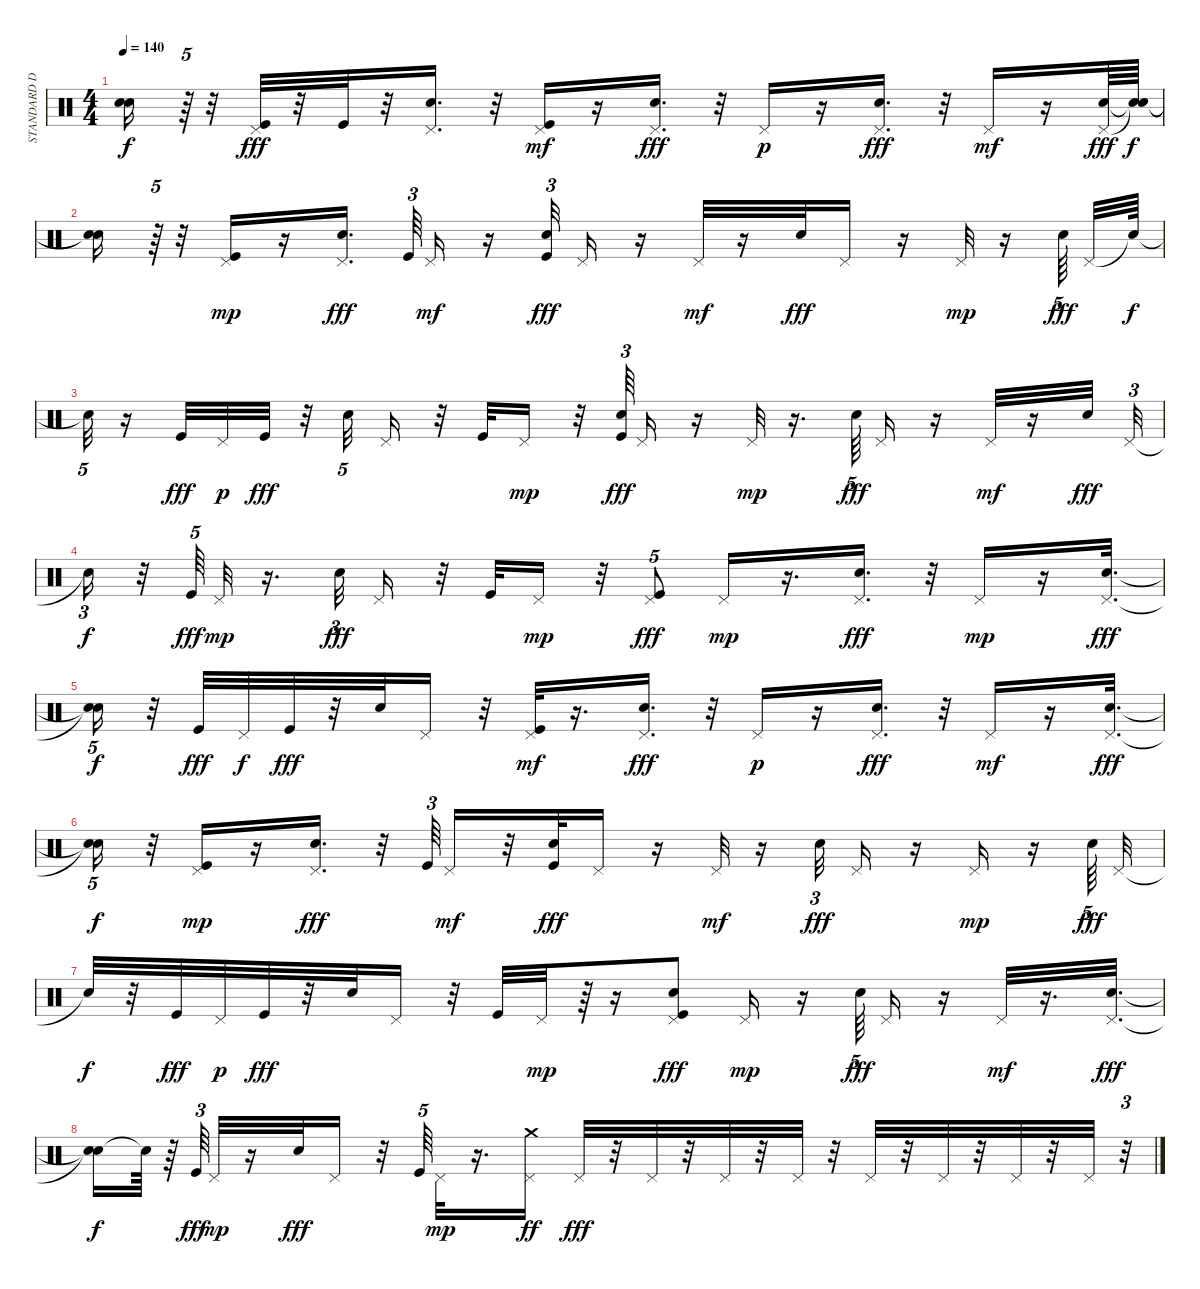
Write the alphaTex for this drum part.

\track ("STANDARD DRUMS" "STANDARD D") {instrument percussion}
\staff {score}
\articulation defaults
\ts (4 4)
\tempo 140
\clef neutral
\ks c
("Snare (hit)"{t} "Snare (hit)"{t}).16{dy f} r.64{tu (5 4)} r.32 ("Kick (hit)" "Pedal Hi-Hat (hit)").32{dy fff} r.32 "Kick (hit)".32 r.32 ("Snare (hit) 2" "Pedal Hi-Hat (hit)").16{d} r.32 ("Kick (hit)" "Pedal Hi-Hat (hit)").16{dy mf} r.16 ("Snare (hit) 2" "Pedal Hi-Hat (hit)").16{d dy fff} r.32 "Pedal Hi-Hat (hit)".16{dy p} r.16 ("Snare (hit) 2" "Pedal Hi-Hat (hit)").16{d dy fff} r.32 "Pedal Hi-Hat (hit)".16{dy mf} r.16 ("Snare (hit) 2" "Pedal Hi-Hat (hit)").64{dy fff} ("Snare (hit)"{t} "Snare (hit)"{t}).64{dy f} |
("Snare (hit)"{t} "Snare (hit)"{t}).16 r.64{tu (5 4)} r.32 ("Kick (hit)" "Pedal Hi-Hat (hit)").16{dy mp} r.16 ("Snare (hit) 2" "Pedal Hi-Hat (hit)").16{d dy fff} "Kick (hit)".64{tu (3 2)} "Pedal Hi-Hat (hit)".16{dy mf} r.16 ("Kick (hit)" "Snare (hit) 2").32{tu (3 2) dy fff} "Pedal Hi-Hat (hit)".16 r.16 "Pedal Hi-Hat (hit)".32{dy mf} r.16 "Snare (hit) 2".32{dy fff} "Pedal Hi-Hat (hit)".16 r.16 "Pedal Hi-Hat (hit)".32{dy mp} r.16 "Snare (hit) 2".64{tu (5 4) dy fff beam splitsecondary} "Pedal Hi-Hat (hit)".32 "Snare (hit)"{t}.64{dy f} |
"Snare (hit)"{t}.32{tu (5 4)} r.16 "Kick (hit)".32{dy fff} "Pedal Hi-Hat (hit)".32{dy p} "Kick (hit)".32{dy fff} r.32 "Snare (hit) 2".32{tu (5 4)} "Pedal Hi-Hat (hit)".16 r.32 "Kick (hit)".32 "Pedal Hi-Hat (hit)".16{dy mp} r.32 ("Kick (hit)" "Snare (hit) 2").64{tu (3 2) dy fff} "Pedal Hi-Hat (hit)".16 r.16 "Pedal Hi-Hat (hit)".32{dy mp} r.16{d} "Snare (hit) 2".64{tu (5 4) dy fff} "Pedal Hi-Hat (hit)".16 r.16 "Pedal Hi-Hat (hit)".32{dy mf} r.16 "Snare (hit) 2".32{dy fff} "Pedal Hi-Hat (hit)".32{tu (3 2)} |
"Snare (hit)"{t}.16{tu (3 2) dy f} r.32 "Kick (hit)".64{tu (5 4) dy fff} "Pedal Hi-Hat (hit)".32{dy mp} r.16{d} "Snare (hit) 2".32{tu (3 2) dy fff} "Pedal Hi-Hat (hit)".16 r.32 "Kick (hit)".32 "Pedal Hi-Hat (hit)".16{dy mp} r.32 ("Kick (hit)" "Pedal Hi-Hat (hit)").8{tu (5 4) dy fff} "Pedal Hi-Hat (hit)".16{dy mp} r.16{d} ("Pedal Hi-Hat (hit)" "Snare (hit) 2").16{d dy fff} r.32 "Pedal Hi-Hat (hit)".16{dy mp} r.16 ("Snare (hit) 2" "Pedal Hi-Hat (hit)").32{d dy fff} |
("Snare (hit)"{t} "Snare (hit)"{t}).16{tu (5 4) dy f} r.32 "Kick (hit)".32{dy fff} "Pedal Hi-Hat (hit)".32{dy f} "Kick (hit)".32{dy fff} r.32 "Snare (hit) 2".32 "Pedal Hi-Hat (hit)".16 r.32 ("Kick (hit)" "Pedal Hi-Hat (hit)").32{dy mf} r.16{d} ("Snare (hit) 2" "Pedal Hi-Hat (hit)").16{d dy fff} r.32 "Pedal Hi-Hat (hit)".16{dy p} r.16 ("Snare (hit) 2" "Pedal Hi-Hat (hit)").16{d dy fff} r.32 "Pedal Hi-Hat (hit)".16{dy mf} r.16 ("Snare (hit) 2" "Pedal Hi-Hat (hit)").32{d dy fff} |
("Snare (hit)"{t} "Snare (hit)"{t}).16{tu (5 4) dy f} r.32 ("Kick (hit)" "Pedal Hi-Hat (hit)").16{dy mp} r.16 ("Snare (hit) 2" "Pedal Hi-Hat (hit)").16{d dy fff} r.32 "Kick (hit)".64{tu (3 2)} "Pedal Hi-Hat (hit)".16{dy mf} r.32 ("Kick (hit)" "Snare (hit) 2").32{dy fff} "Pedal Hi-Hat (hit)".16 r.16 "Pedal Hi-Hat (hit)".32{dy mf} r.16 "Snare (hit) 2".32{tu (3 2) dy fff} "Pedal Hi-Hat (hit)".16 r.16 "Pedal Hi-Hat (hit)".16{dy mp} r.16 "Snare (hit) 2".64{tu (5 4) dy fff} "Pedal Hi-Hat (hit)".32 |
"Snare (hit)"{t}.32{dy f} r.32 "Kick (hit)".32{dy fff} "Pedal Hi-Hat (hit)".32{dy p} "Kick (hit)".32{dy fff} r.32 "Snare (hit) 2".32 "Pedal Hi-Hat (hit)".16 r.32 "Kick (hit)".32 "Pedal Hi-Hat (hit)".32{dy mp} r.64 r.16 ("Kick (hit)" "Snare (hit) 2" "Pedal Hi-Hat (hit)").8{dy fff} "Pedal Hi-Hat (hit)".16{dy mp} r.16 "Snare (hit) 2".64{tu (5 4) dy fff} "Pedal Hi-Hat (hit)".16 r.16 "Pedal Hi-Hat (hit)".32{dy mf} r.16{d} ("Snare (hit) 2" "Pedal Hi-Hat (hit)").32{d dy fff} |
("Snare (hit)"{t} "Snare (hit)"{t}).16{dy f} "Snare (hit)"{t}.64 r.64 "Kick (hit)".64{tu (3 2) dy fff} "Pedal Hi-Hat (hit)".32{dy mp} r.16 "Snare (hit) 2".32{dy fff} "Pedal Hi-Hat (hit)".16 r.32 "Kick (hit)".64{tu (5 4)} "Pedal Hi-Hat (hit)".32{dy mp} r.16{d} ("Pedal Hi-Hat (hit)" "Crash medium (hit)").16{dy ff} "Pedal Hi-Hat (hit)".32{dy fff} r.32 "Pedal Hi-Hat (hit)".32 r.32 "Pedal Hi-Hat (hit)".32 r.32 "Pedal Hi-Hat (hit)".32 r.32 "Pedal Hi-Hat (hit)".32 r.32 "Pedal Hi-Hat (hit)".32 r.32 "Pedal Hi-Hat (hit)".32 r.32 "Pedal Hi-Hat (hit)".32 r.32{tu (3 2)}
